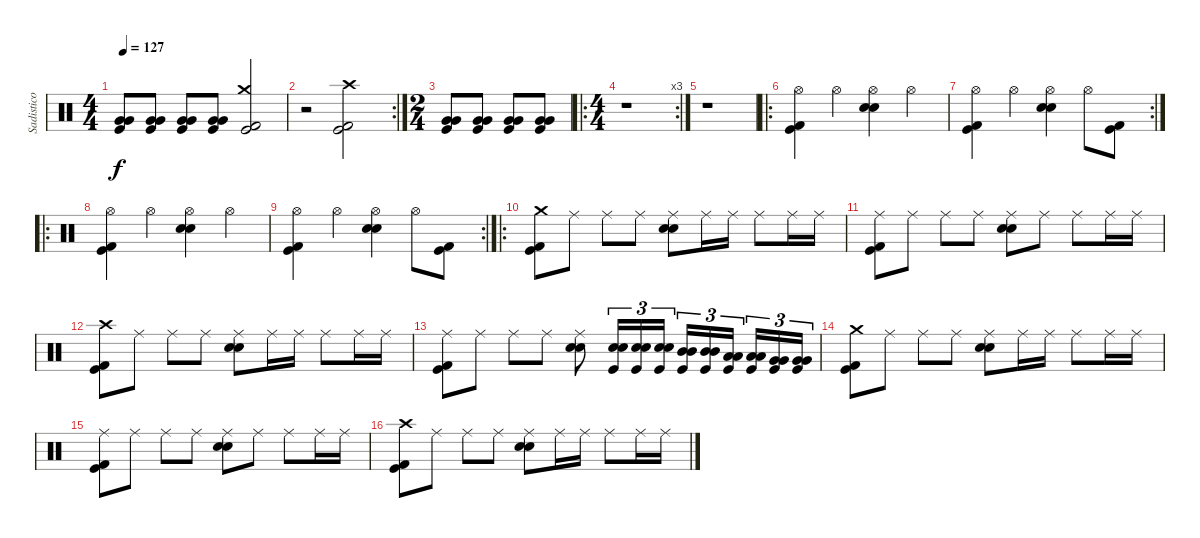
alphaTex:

\track ("Sadistico" "Sadistico") {instrument percussion}
\staff {score}
\articulation defaults
\ts (4 4)
\tempo 127
\clef neutral
\ks c
("Kick (hit)" "Very Low Tom (hit)" "Very Low Tom (hit)").8{dy f} ("Kick (hit)" "Very Low Tom (hit)" "Very Low Tom (hit)").8 ("Kick (hit)" "Very Low Tom (hit)" "Very Low Tom (hit)").8 ("Kick (hit)" "Very Low Tom (hit)" "Very Low Tom (hit)").8 ("Crash medium (hit)" "Kick (hit)" "Kick (hit) 2").2 |
\rc 2
r.2 ("Crash high (hit)" "Kick (hit)" "Kick (hit) 2").2 |
\ts (2 4)
("Kick (hit)" "Very Low Tom (hit)" "Very Low Tom (hit)").8 ("Kick (hit)" "Very Low Tom (hit)" "Very Low Tom (hit)").8 ("Kick (hit)" "Very Low Tom (hit)" "Very Low Tom (hit)").8 ("Kick (hit)" "Very Low Tom (hit)" "Very Low Tom (hit)").8 |
\ro
\rc 3
\ts (4 4)
r.1 |
r.1 |
\ro
("Hi-Hat (open)" "Kick (hit)" "Kick (hit) 2").4 "Hi-Hat (open)".4 ("Hi-Hat (open)" "Snare (hit) 2" "Snare (hit) 2").4 "Hi-Hat (open)".4 |
\rc 2
("Hi-Hat (open)" "Kick (hit)" "Kick (hit) 2").4 "Hi-Hat (open)".4 ("Hi-Hat (open)" "Snare (hit) 2" "Snare (hit) 2").4 "Hi-Hat (open)".8 ("Kick (hit)" "Kick (hit) 2").8 |
\ro
("Hi-Hat (open)" "Kick (hit)" "Kick (hit) 2").4 "Hi-Hat (open)".4 ("Hi-Hat (open)" "Snare (hit) 2" "Snare (hit) 2").4 "Hi-Hat (open)".4 |
\rc 2
("Hi-Hat (open)" "Kick (hit)" "Kick (hit) 2").4 "Hi-Hat (open)".4 ("Hi-Hat (open)" "Snare (hit) 2" "Snare (hit) 2").4 "Hi-Hat (open)".8 ("Kick (hit)" "Kick (hit) 2").8 |
\ro
("Crash medium (hit)" "Kick (hit)" "Kick (hit) 2").8 "Ride (middle)".8 "Ride (middle)".8 "Ride (middle)".8 ("Ride (middle)" "Snare (hit) 2" "Snare (hit) 2").8 "Ride (middle)".16 "Ride (middle)".16 "Ride (middle)".8 "Ride (middle)".16 "Ride (middle)".16 |
("Ride (middle)" "Kick (hit)" "Kick (hit) 2").8 "Ride (middle)".8 "Ride (middle)".8 "Ride (middle)".8 ("Ride (middle)" "Snare (hit) 2" "Snare (hit) 2").8 "Ride (middle)".8 "Ride (middle)".8 "Ride (middle)".16 "Ride (middle)".16 |
("Crash high (hit)" "Kick (hit)" "Kick (hit) 2").8 "Ride (middle)".8 "Ride (middle)".8 "Ride (middle)".8 ("Ride (middle)" "Snare (hit) 2" "Snare (hit) 2").8 "Ride (middle)".16 "Ride (middle)".16 "Ride (middle)".8 "Ride (middle)".16 "Ride (middle)".16 |
("Ride (middle)" "Kick (hit)" "Kick (hit) 2").8 "Ride (middle)".8 "Ride (middle)".8 "Ride (middle)".8 ("Ride (middle)" "Snare (hit) 2" "Snare (hit) 2").8 ("Snare (hit) 2" "Snare (hit) 2" "Kick (hit)").16{tu (3 2)} ("Snare (hit) 2" "Snare (hit) 2" "Kick (hit)").16{tu (3 2)} ("Snare (hit) 2" "Snare (hit) 2" "Kick (hit)").16{tu (3 2)} ("Mid Tom (hit)" "Mid Tom (hit)" "Kick (hit)").16{tu (3 2)} ("Mid Tom (hit)" "Mid Tom (hit)" "Kick (hit)").16{tu (3 2)} ("Low Tom (hit)" "Low Tom (hit)" "Kick (hit)").16{tu (3 2)} ("Low Tom (hit)" "Low Tom (hit)" "Kick (hit)").16{tu (3 2)} ("Very Low Tom (hit)" "Very Low Tom (hit)" "Kick (hit)").16{tu (3 2)} ("Very Low Tom (hit)" "Very Low Tom (hit)" "Kick (hit)").16{tu (3 2)} |
("Crash medium (hit)" "Kick (hit)" "Kick (hit) 2").8 "Ride (middle)".8 "Ride (middle)".8 "Ride (middle)".8 ("Ride (middle)" "Snare (hit) 2" "Snare (hit) 2").8 "Ride (middle)".16 "Ride (middle)".16 "Ride (middle)".8 "Ride (middle)".16 "Ride (middle)".16 |
("Ride (middle)" "Kick (hit)" "Kick (hit) 2").8 "Ride (middle)".8 "Ride (middle)".8 "Ride (middle)".8 ("Ride (middle)" "Snare (hit) 2" "Snare (hit) 2").8 "Ride (middle)".8 "Ride (middle)".8 "Ride (middle)".16 "Ride (middle)".16 |
("Crash high (hit)" "Kick (hit)" "Kick (hit) 2").8 "Ride (middle)".8 "Ride (middle)".8 "Ride (middle)".8 ("Ride (middle)" "Snare (hit) 2" "Snare (hit) 2").8 "Ride (middle)".16 "Ride (middle)".16 "Ride (middle)".8 "Ride (middle)".16 "Ride (middle)".16
